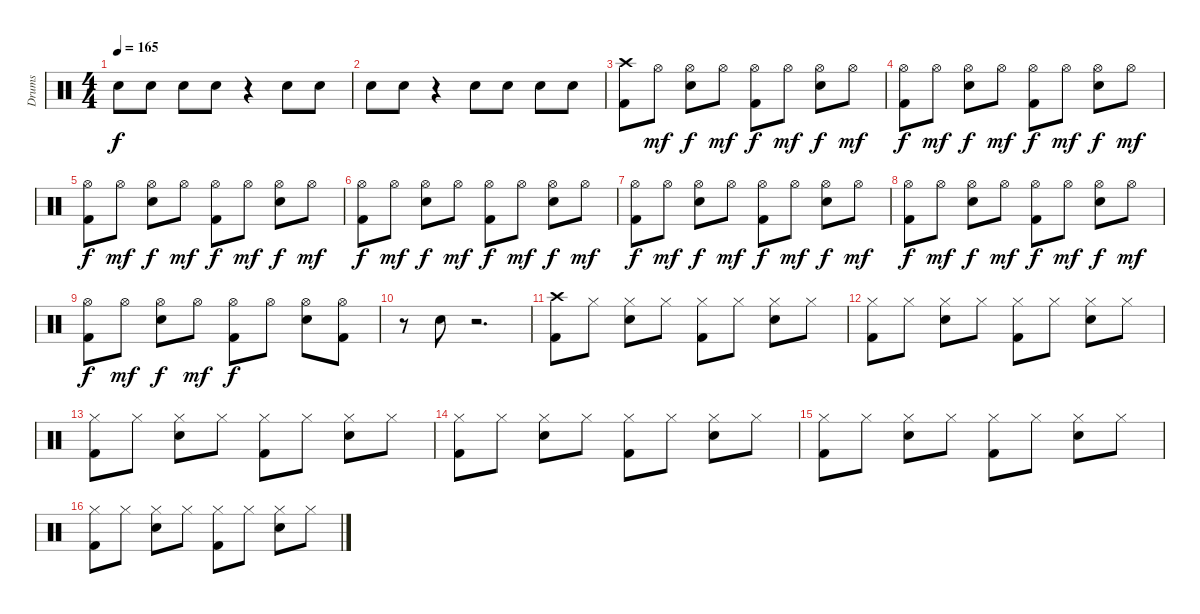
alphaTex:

\track ("Drums" "Drums") {instrument percussion}
\staff {score}
\articulation defaults
\ts (4 4)
\tempo 165
\clef neutral
\ks c "Electric Snare (hit)".8{dy f} "Electric Snare (hit)".8 "Electric Snare (hit)".8 "Electric Snare (hit)".8
r.4 "Electric Snare (hit)".8 "Electric Snare (hit)".8 |
"Electric Snare (hit)".8 "Electric Snare (hit)".8 r.4 "Electric Snare (hit)".8 "Electric Snare (hit)".8 "Electric Snare (hit)".8 "Electric Snare (hit)".8 |
("Crash high (hit)" "Kick (hit) 2").8 "Hi-Hat (open)".8{dy mf} ("Hi-Hat (open)" "Electric Snare (hit)").8{dy f} "Hi-Hat (open)".8{dy mf} ("Hi-Hat (open)" "Kick (hit) 2").8{dy f} "Hi-Hat (open)".8{dy mf} ("Hi-Hat (open)" "Electric Snare (hit)").8{dy f} "Hi-Hat (open)".8{dy mf} |
("Hi-Hat (open)" "Kick (hit) 2").8{dy f} "Hi-Hat (open)".8{dy mf} ("Hi-Hat (open)" "Electric Snare (hit)").8{dy f} "Hi-Hat (open)".8{dy mf} ("Hi-Hat (open)" "Kick (hit) 2").8{dy f} "Hi-Hat (open)".8{dy mf} ("Hi-Hat (open)" "Electric Snare (hit)").8{dy f} "Hi-Hat (open)".8{dy mf} |
("Hi-Hat (open)" "Kick (hit) 2").8{dy f} "Hi-Hat (open)".8{dy mf} ("Hi-Hat (open)" "Electric Snare (hit)").8{dy f} "Hi-Hat (open)".8{dy mf} ("Hi-Hat (open)" "Kick (hit) 2").8{dy f} "Hi-Hat (open)".8{dy mf} ("Hi-Hat (open)" "Electric Snare (hit)").8{dy f} "Hi-Hat (open)".8{dy mf} |
("Hi-Hat (open)" "Kick (hit) 2").8{dy f} "Hi-Hat (open)".8{dy mf} ("Hi-Hat (open)" "Electric Snare (hit)").8{dy f} "Hi-Hat (open)".8{dy mf} ("Hi-Hat (open)" "Kick (hit) 2").8{dy f} "Hi-Hat (open)".8{dy mf} ("Hi-Hat (open)" "Electric Snare (hit)").8{dy f} "Hi-Hat (open)".8{dy mf} |
("Hi-Hat (open)" "Kick (hit) 2").8{dy f} "Hi-Hat (open)".8{dy mf} ("Hi-Hat (open)" "Electric Snare (hit)").8{dy f} "Hi-Hat (open)".8{dy mf} ("Hi-Hat (open)" "Kick (hit) 2").8{dy f} "Hi-Hat (open)".8{dy mf} ("Hi-Hat (open)" "Electric Snare (hit)").8{dy f} "Hi-Hat (open)".8{dy mf} |
("Hi-Hat (open)" "Kick (hit) 2").8{dy f} "Hi-Hat (open)".8{dy mf} ("Hi-Hat (open)" "Electric Snare (hit)").8{dy f} "Hi-Hat (open)".8{dy mf} ("Hi-Hat (open)" "Kick (hit) 2").8{dy f} "Hi-Hat (open)".8{dy mf} ("Hi-Hat (open)" "Electric Snare (hit)").8{dy f} "Hi-Hat (open)".8{dy mf} |
("Hi-Hat (open)" "Kick (hit) 2").8{dy f} "Hi-Hat (open)".8{dy mf} ("Hi-Hat (open)" "Electric Snare (hit)").8{dy f} "Hi-Hat (open)".8{dy mf} ("Hi-Hat (open)" "Kick (hit) 2").8{dy f} "Hi-Hat (open)".8 ("Hi-Hat (open)" "Electric Snare (hit)").8 ("Hi-Hat (open)" "Kick (hit) 2").8 |
r.8 "Electric Snare (hit)".8 r.2{d} |
("Crash high (hit)" "Kick (hit) 2").8 "Hi-Hat (closed)".8 ("Hi-Hat (closed)" "Electric Snare (hit)").8 "Hi-Hat (closed)".8 ("Hi-Hat (closed)" "Kick (hit) 2").8 "Hi-Hat (closed)".8 ("Hi-Hat (closed)" "Electric Snare (hit)").8 "Hi-Hat (closed)".8 |
("Hi-Hat (closed)" "Kick (hit) 2").8 "Hi-Hat (closed)".8 ("Hi-Hat (closed)" "Electric Snare (hit)").8 "Hi-Hat (closed)".8 ("Hi-Hat (closed)" "Kick (hit) 2").8 "Hi-Hat (closed)".8 ("Hi-Hat (closed)" "Electric Snare (hit)").8 "Hi-Hat (closed)".8 |
("Hi-Hat (closed)" "Kick (hit) 2").8 "Hi-Hat (closed)".8 ("Hi-Hat (closed)" "Electric Snare (hit)").8 "Hi-Hat (closed)".8 ("Hi-Hat (closed)" "Kick (hit) 2").8 "Hi-Hat (closed)".8 ("Hi-Hat (closed)" "Electric Snare (hit)").8 "Hi-Hat (closed)".8 |
("Hi-Hat (closed)" "Kick (hit) 2").8 "Hi-Hat (closed)".8 ("Hi-Hat (closed)" "Electric Snare (hit)").8 "Hi-Hat (closed)".8 ("Hi-Hat (closed)" "Kick (hit) 2").8 "Hi-Hat (closed)".8 ("Hi-Hat (closed)" "Electric Snare (hit)").8 "Hi-Hat (closed)".8 |
("Hi-Hat (closed)" "Kick (hit) 2").8 "Hi-Hat (closed)".8 ("Hi-Hat (closed)" "Electric Snare (hit)").8 "Hi-Hat (closed)".8 ("Hi-Hat (closed)" "Kick (hit) 2").8 "Hi-Hat (closed)".8 ("Hi-Hat (closed)" "Electric Snare (hit)").8 "Hi-Hat (closed)".8 |
("Hi-Hat (closed)" "Kick (hit) 2").8 "Hi-Hat (closed)".8 ("Hi-Hat (closed)" "Electric Snare (hit)").8 "Hi-Hat (closed)".8 ("Hi-Hat (closed)" "Kick (hit) 2").8 "Hi-Hat (closed)".8 ("Hi-Hat (closed)" "Electric Snare (hit)").8 "Hi-Hat (closed)".8
